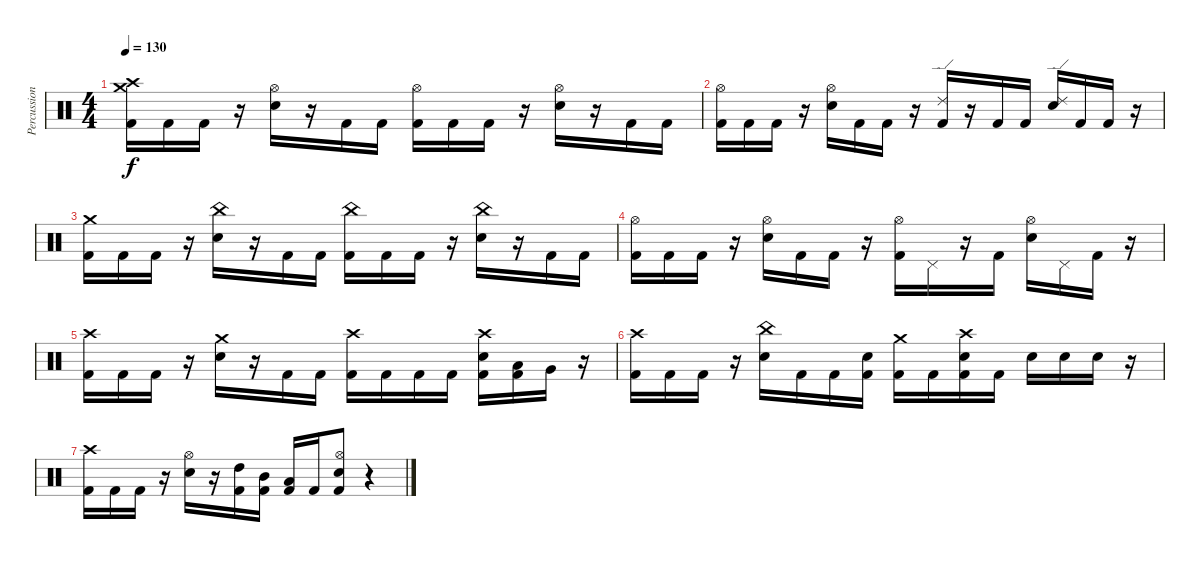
\track ("Percussion" "Percussion") {instrument percussion}
\staff {score}
\articulation defaults
\ts (4 4)
\tempo 130
\clef neutral
\ks c
("Crash medium (hit)" "Crash high (hit)" "Kick (hit) 2").16{dy f} "Kick (hit) 2".16 "Kick (hit) 2".16 r.16 ("Hi-Hat (open)" "Electric Snare (hit)").16 r.16 "Kick (hit) 2".16 "Kick (hit) 2".16 ("Hi-Hat (open)" "Kick (hit) 2").16 "Kick (hit) 2".16 "Kick (hit) 2".16 r.16 ("Hi-Hat (open)" "Electric Snare (hit)").16 r.16 "Kick (hit) 2".16 "Kick (hit) 2".16 |
("Hi-Hat (open)" "Kick (hit) 2").16 "Kick (hit) 2".16 "Kick (hit) 2".16 r.16 ("Hi-Hat (open)" "Electric Snare (hit)").16 "Kick (hit) 2".16 "Kick (hit) 2".16 r.16 ("Ride (edge) 2" "Kick (hit) 2").16 r.16 "Kick (hit) 2".16 "Kick (hit) 2".16 ("Ride (edge) 2" "Electric Snare (hit)").16 "Kick (hit) 2".16 "Kick (hit) 2".16 r.16 |
("Crash medium (hit)" "Kick (hit) 2").16 "Kick (hit) 2".16 "Kick (hit) 2".16 r.16 ("China (hit)" "Electric Snare (hit)").16 r.16 "Kick (hit) 2".16 "Kick (hit) 2".16 ("China (hit)" "Kick (hit) 2").16 "Kick (hit) 2".16 "Kick (hit) 2".16 r.16 ("China (hit)" "Electric Snare (hit)").16 r.16 "Kick (hit) 2".16 "Kick (hit) 2".16 |
("Hi-Hat (open)" "Kick (hit) 2").16 "Kick (hit) 2".16 "Kick (hit) 2".16 r.16 ("Hi-Hat (open)" "Electric Snare (hit)").16 "Kick (hit) 2".16 "Kick (hit) 2".16 r.16 ("Hi-Hat (open)" "Kick (hit) 2").16 "Pedal Hi-Hat (hit)".16 r.16 "Kick (hit) 2".16 ("Hi-Hat (open)" "Electric Snare (hit)").16 "Pedal Hi-Hat (hit)".16 "Kick (hit) 2".16 r.16 |
("Crash high (hit)" "Kick (hit) 2").16 "Kick (hit) 2".16 "Kick (hit) 2".16 r.16 ("Crash medium (hit)" "Electric Snare (hit)").16 r.16 "Kick (hit) 2".16 "Kick (hit) 2".16 ("Crash high (hit)" "Kick (hit) 2").16 "Kick (hit) 2".16 "Kick (hit) 2".16 "Kick (hit) 2".16 ("Crash high (hit)" "Electric Snare (hit)" "Kick (hit) 2").16 ("Low Tom (hit)" "Kick (hit) 2").16 "Very Low Tom (hit)".16 r.16 |
("Crash high (hit)" "Kick (hit) 2").16 "Kick (hit) 2".16 "Kick (hit) 2".16 r.16 ("China (hit)" "Electric Snare (hit)").16 "Kick (hit) 2".16 "Kick (hit) 2".16 ("Electric Snare (hit)" "Kick (hit) 2").16 ("Crash medium (hit)" "Kick (hit) 2").16 "Kick (hit) 2".16 ("Crash high (hit)" "Electric Snare (hit)" "Kick (hit) 2").16 "Kick (hit) 2".16 "Electric Snare (hit)".16 "Electric Snare (hit)".16 "Electric Snare (hit)".16 r.16 |
("Crash high (hit)" "Kick (hit) 2").16 "Kick (hit) 2".16 "Kick (hit) 2".16 r.16 ("Hi-Hat (open)" "Electric Snare (hit)").16 r.16 ("High Tom (hit)" "Kick (hit) 2").16 ("Mid Tom (hit)" "Kick (hit) 2").16 ("Low Tom (hit)" "Kick (hit) 2").16 "Kick (hit) 2".16 ("Hi-Hat (open)" "Electric Snare (hit)" "Kick (hit) 2").8 r.4
